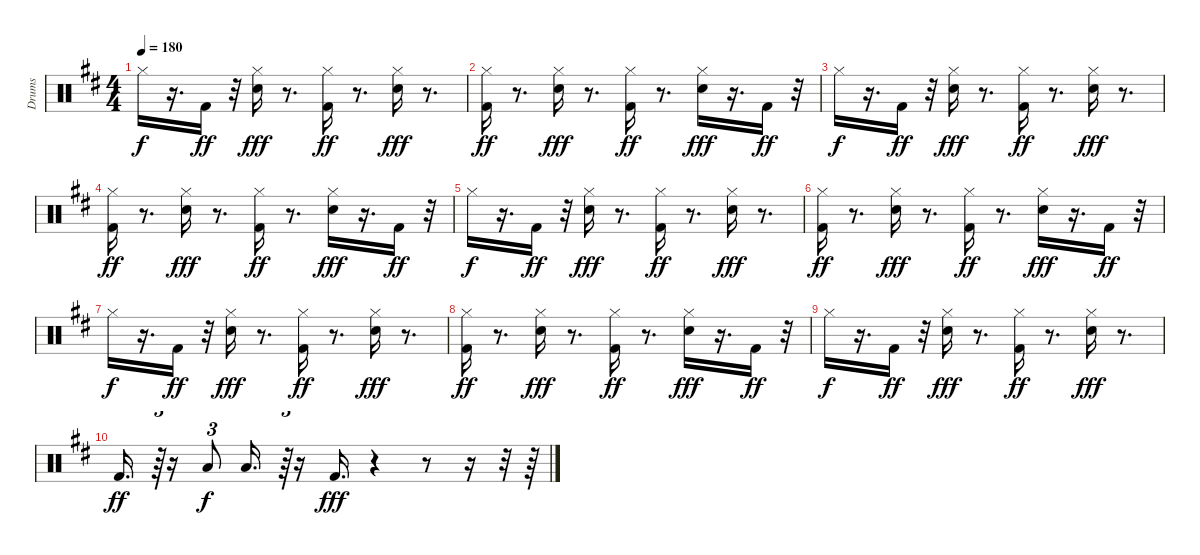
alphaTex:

\track ("Drums" "Drums") {instrument percussion}
\staff {score}
\articulation defaults
\ts (4 4)
\tempo 180
\clef neutral
\ks bminor "Hi-Hat (closed)".16{dy f}
r.16{d} "Kick (hit) 2".16{dy ff} r.32 ("Snare (hit) 2" "Hi-Hat (closed)").16{dy fff} r.8{d} ("Kick (hit) 2" "Hi-Hat (closed)").16{dy ff} r.8{d} ("Snare (hit) 2" "Hi-Hat (closed)").16{dy fff} r.8{d} |
("Kick (hit) 2" "Hi-Hat (closed)").16{dy ff} r.8{d} ("Snare (hit) 2" "Hi-Hat (closed)").16{dy fff} r.8{d} ("Kick (hit) 2" "Hi-Hat (closed)").16{dy ff} r.8{d} ("Snare (hit) 2" "Hi-Hat (closed)").16{dy fff} r.16{d} "Kick (hit) 2".16{dy ff} r.32 |
"Hi-Hat (closed)".16{dy f} r.16{d} "Kick (hit) 2".16{dy ff} r.32 ("Snare (hit) 2" "Hi-Hat (closed)").16{dy fff} r.8{d} ("Kick (hit) 2" "Hi-Hat (closed)").16{dy ff} r.8{d} ("Snare (hit) 2" "Hi-Hat (closed)").16{dy fff} r.8{d} |
("Kick (hit) 2" "Hi-Hat (closed)").16{dy ff} r.8{d} ("Snare (hit) 2" "Hi-Hat (closed)").16{dy fff} r.8{d} ("Kick (hit) 2" "Hi-Hat (closed)").16{dy ff} r.8{d} ("Snare (hit) 2" "Hi-Hat (closed)").16{dy fff} r.16{d} "Kick (hit) 2".16{dy ff} r.32 |
"Hi-Hat (closed)".16{dy f} r.16{d} "Kick (hit) 2".16{dy ff} r.32 ("Snare (hit) 2" "Hi-Hat (closed)").16{dy fff} r.8{d} ("Kick (hit) 2" "Hi-Hat (closed)").16{dy ff} r.8{d} ("Snare (hit) 2" "Hi-Hat (closed)").16{dy fff} r.8{d} |
("Kick (hit) 2" "Hi-Hat (closed)").16{dy ff} r.8{d} ("Snare (hit) 2" "Hi-Hat (closed)").16{dy fff} r.8{d} ("Kick (hit) 2" "Hi-Hat (closed)").16{dy ff} r.8{d} ("Snare (hit) 2" "Hi-Hat (closed)").16{dy fff} r.16{d} "Kick (hit) 2".16{dy ff} r.32 |
"Hi-Hat (closed)".16{dy f} r.16{d} "Kick (hit) 2".16{dy ff} r.32 ("Snare (hit) 2" "Hi-Hat (closed)").16{dy fff} r.8{d} ("Kick (hit) 2" "Hi-Hat (closed)").16{dy ff} r.8{d} ("Snare (hit) 2" "Hi-Hat (closed)").16{dy fff} r.8{d} |
("Kick (hit) 2" "Hi-Hat (closed)").16{dy ff} r.8{d} ("Snare (hit) 2" "Hi-Hat (closed)").16{dy fff} r.8{d} ("Kick (hit) 2" "Hi-Hat (closed)").16{dy ff} r.8{d} ("Snare (hit) 2" "Hi-Hat (closed)").16{dy fff} r.16{d} "Kick (hit) 2".16{dy ff} r.32 |
"Hi-Hat (closed)".16{dy f} r.16{d} "Kick (hit) 2".16{dy ff} r.32 ("Snare (hit) 2" "Hi-Hat (closed)").16{dy fff} r.8{d} ("Kick (hit) 2" "Hi-Hat (closed)").16{dy ff} r.8{d} ("Snare (hit) 2" "Hi-Hat (closed)").16{dy fff} r.8{d} |
"Kick (hit) 2".16{d dy ff} r.64{tu (3 2)} r.16 "Low Tom (hit)".8{tu (3 2) dy f} "Low Floor Tom (hit)".16{d} r.64{tu (3 2)} r.16 "Kick (hit) 2".16{d dy fff} r.4 r.8 r.16 r.32 r.64
